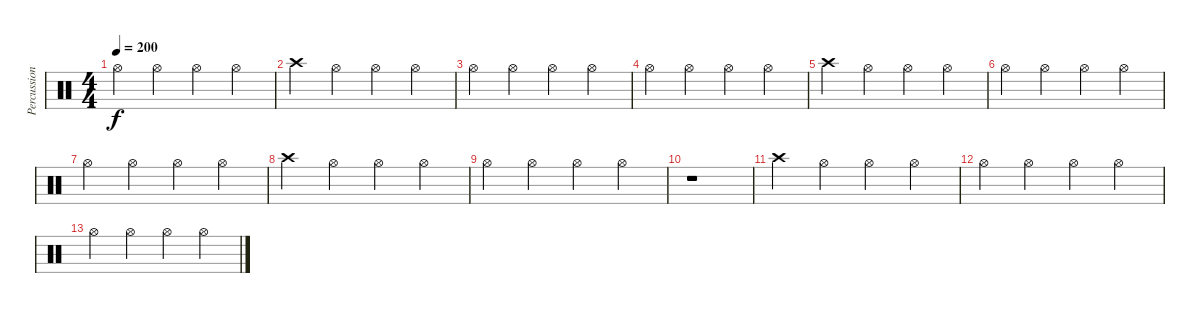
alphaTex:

\track ("Percussion" "Percussion") {instrument percussion}
\staff {score}
\articulation defaults
\ts (4 4)
\tempo 200
\clef neutral
\ks c "Hi-Hat (open)".4{dy f} "Hi-Hat (open)".4 "Hi-Hat (open)".4 "Hi-Hat (open)".4
|
"Crash high (hit)".4 "Hi-Hat (open)".4 "Hi-Hat (open)".4 "Hi-Hat (open)".4 |
"Hi-Hat (open)".4 "Hi-Hat (open)".4 "Hi-Hat (open)".4 "Hi-Hat (open)".4 |
"Hi-Hat (open)".4 "Hi-Hat (open)".4 "Hi-Hat (open)".4 "Hi-Hat (open)".4 |
"Crash high (hit)".4 "Hi-Hat (open)".4 "Hi-Hat (open)".4 "Hi-Hat (open)".4 |
"Hi-Hat (open)".4 "Hi-Hat (open)".4 "Hi-Hat (open)".4 "Hi-Hat (open)".4 |
"Hi-Hat (open)".4 "Hi-Hat (open)".4 "Hi-Hat (open)".4 "Hi-Hat (open)".4 |
"Crash high (hit)".4 "Hi-Hat (open)".4 "Hi-Hat (open)".4 "Hi-Hat (open)".4 |
"Hi-Hat (open)".4 "Hi-Hat (open)".4 "Hi-Hat (open)".4 "Hi-Hat (open)".4 |
r.1 |
"Crash high (hit)".4 "Hi-Hat (open)".4 "Hi-Hat (open)".4 "Hi-Hat (open)".4 |
"Hi-Hat (open)".4 "Hi-Hat (open)".4 "Hi-Hat (open)".4 "Hi-Hat (open)".4 |
"Hi-Hat (open)".4 "Hi-Hat (open)".4 "Hi-Hat (open)".4 "Hi-Hat (open)".4
